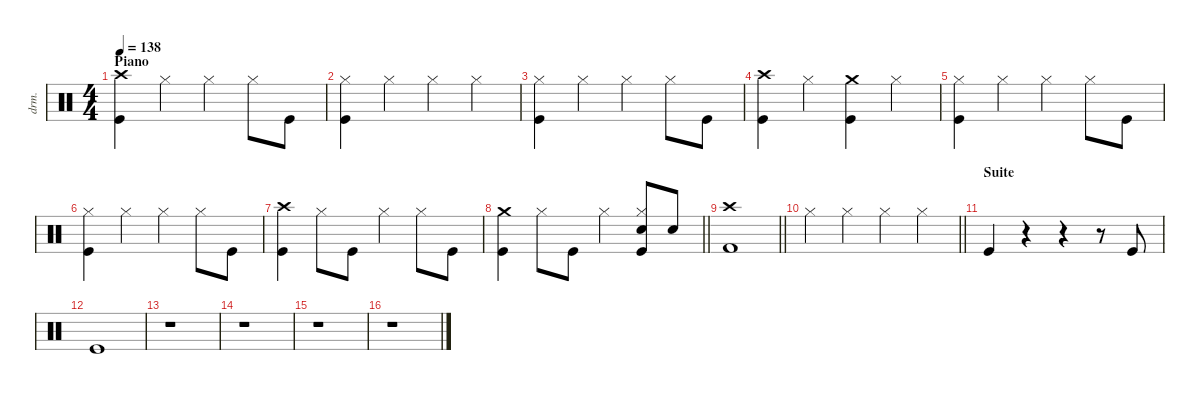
\defaultSystemsLayout 4
\hideDynamics
\bracketExtendMode nobrackets
\track ("Percussions" "drm.") {instrument percussion}
\staff {score}
\articulation defaults
\ts (4 4)
\section ("" "Piano")
\tempo 138
\clef neutral
\ks aminor
("Crash high (hit)" "Kick (hit)").4{dy f} "Hi-Hat (closed)".4 "Hi-Hat (closed)".4 "Hi-Hat (closed)".8 "Kick (hit)".8 |
("Hi-Hat (closed)" "Kick (hit)").4 "Hi-Hat (closed)".4 "Hi-Hat (closed)".4 "Hi-Hat (closed)".4 |
("Hi-Hat (closed)" "Kick (hit)").4 "Hi-Hat (closed)".4 "Hi-Hat (closed)".4 "Hi-Hat (closed)".8 "Kick (hit)".8 |
("Crash high (hit)" "Kick (hit)").4 "Hi-Hat (closed)".4 ("Crash medium (hit)" "Kick (hit)").4 "Hi-Hat (closed)".4 |
("Hi-Hat (closed)" "Kick (hit)").4 "Hi-Hat (closed)".4 "Hi-Hat (closed)".4 "Hi-Hat (closed)".8 "Kick (hit)".8 |
("Hi-Hat (closed)" "Kick (hit)").4 "Hi-Hat (closed)".4 "Hi-Hat (closed)".4 "Hi-Hat (closed)".8 "Kick (hit)".8 |
("Crash high (hit)" "Kick (hit)").4 "Hi-Hat (closed)".8 "Kick (hit)".8 "Hi-Hat (closed)".4 "Hi-Hat (closed)".8 "Kick (hit)".8 |
\barLineRight lightlight
("Crash medium (hit)" "Kick (hit)").4 "Hi-Hat (closed)".8 "Kick (hit)".8 "Hi-Hat (closed)".4 ("Hi-Hat (closed)" "Snare (hit) 2" "Kick (hit)").8 "Snare (hit) 2".8 |
\barLineRight lightlight
("Crash high (hit)" "Kick (hit) 2").1 |
\barLineRight lightlight "Hi-Hat (closed)".4 "Hi-Hat (closed)".4 "Hi-Hat (closed)".4 "Hi-Hat (closed)".4
|
\section ("" "Suite")
"Kick (hit)".4 r.4 r.4 r.8 "Kick (hit)".8 |
"Kick (hit)".1 |
r.1 |
r.1 |
r.1 |
r.1
